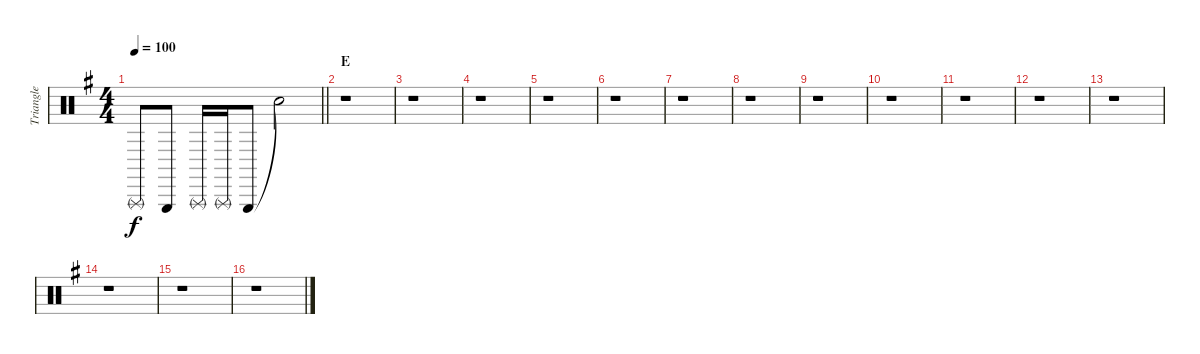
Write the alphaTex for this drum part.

\track ("Triangle" "Triangle") {instrument percussion}
\staff {score}
\articulation defaults
\ts (4 4)
\tempo 100
\clef neutral
\barLineRight lightlight
\ks g "Triangle (rnute)".8{dy f} "Triangle (hit)".8 "Triangle (rnute)".16 "Triangle (rnute)".16 "Triangle (hit)".8 "Snare (hit)"{t}.2
|
\section ("" "E")
r.1 |
r.1 |
r.1 |
r.1 |
r.1 |
r.1 |
r.1 |
r.1 |
r.1 |
r.1 |
r.1 |
r.1 |
r.1 |
r.1 |
r.1
